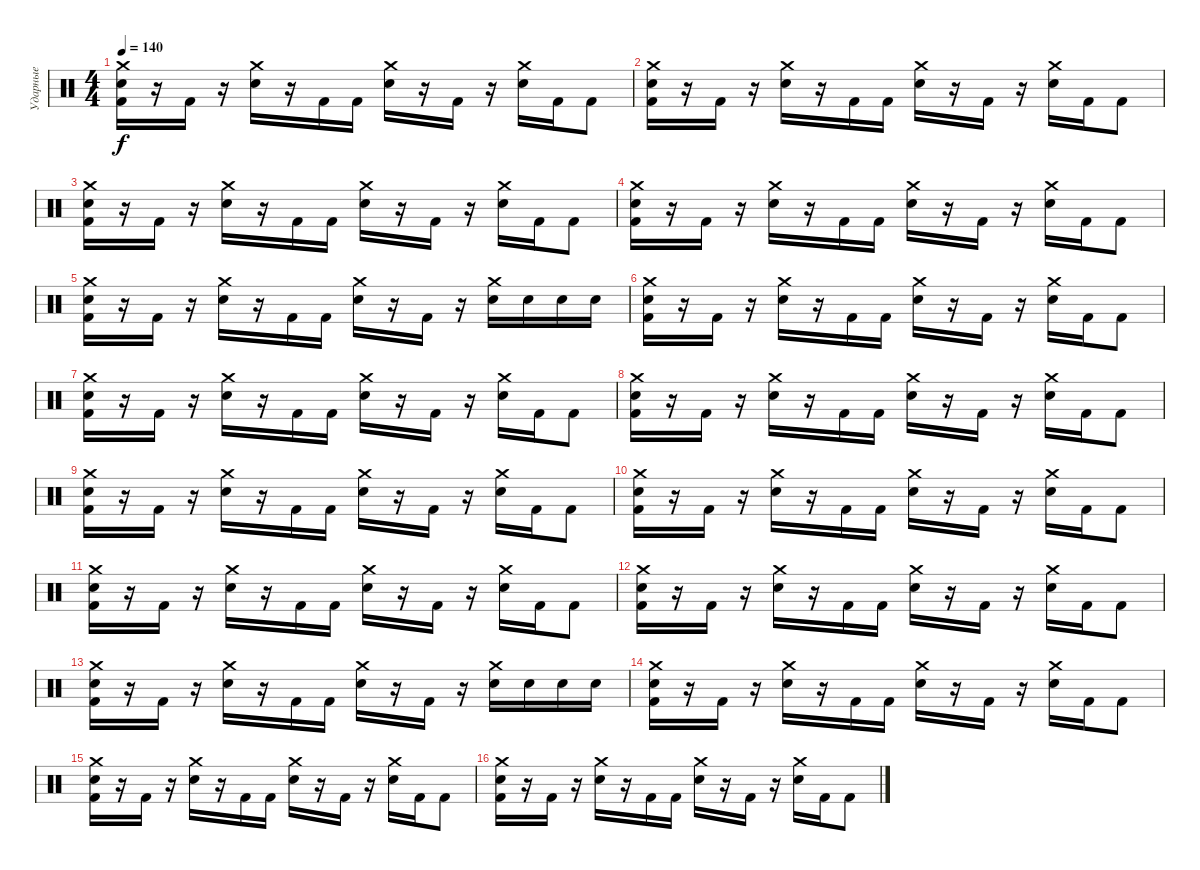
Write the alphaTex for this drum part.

\track ("Ударные" "Ударные") {instrument percussion}
\staff {score}
\articulation defaults
\ts (4 4)
\tempo 140
\clef neutral
\ks c
("Crash medium (hit)" "Electric Snare (hit)" "Kick (hit) 2").16{dy f} r.16 "Kick (hit) 2".16 r.16 ("Crash medium (hit)" "Electric Snare (hit)").16 r.16 "Kick (hit) 2".16 "Kick (hit) 2".16 ("Crash medium (hit)" "Electric Snare (hit)").16 r.16 "Kick (hit) 2".16 r.16 ("Crash medium (hit)" "Electric Snare (hit)").16 "Kick (hit) 2".16 "Kick (hit) 2".8 |
("Crash medium (hit)" "Electric Snare (hit)" "Kick (hit) 2").16 r.16 "Kick (hit) 2".16 r.16 ("Crash medium (hit)" "Electric Snare (hit)").16 r.16 "Kick (hit) 2".16 "Kick (hit) 2".16 ("Crash medium (hit)" "Electric Snare (hit)").16 r.16 "Kick (hit) 2".16 r.16 ("Crash medium (hit)" "Electric Snare (hit)").16 "Kick (hit) 2".16 "Kick (hit) 2".8 |
("Crash medium (hit)" "Electric Snare (hit)" "Kick (hit) 2").16 r.16 "Kick (hit) 2".16 r.16 ("Crash medium (hit)" "Electric Snare (hit)").16 r.16 "Kick (hit) 2".16 "Kick (hit) 2".16 ("Crash medium (hit)" "Electric Snare (hit)").16 r.16 "Kick (hit) 2".16 r.16 ("Crash medium (hit)" "Electric Snare (hit)").16 "Kick (hit) 2".16 "Kick (hit) 2".8 |
("Crash medium (hit)" "Electric Snare (hit)" "Kick (hit) 2").16 r.16 "Kick (hit) 2".16 r.16 ("Crash medium (hit)" "Electric Snare (hit)").16 r.16 "Kick (hit) 2".16 "Kick (hit) 2".16 ("Crash medium (hit)" "Electric Snare (hit)").16 r.16 "Kick (hit) 2".16 r.16 ("Crash medium (hit)" "Electric Snare (hit)").16 "Kick (hit) 2".16 "Kick (hit) 2".8 |
("Crash medium (hit)" "Electric Snare (hit)" "Kick (hit) 2").16 r.16 "Kick (hit) 2".16 r.16 ("Crash medium (hit)" "Electric Snare (hit)").16 r.16 "Kick (hit) 2".16 "Kick (hit) 2".16 ("Crash medium (hit)" "Electric Snare (hit)").16 r.16 "Kick (hit) 2".16 r.16 ("Crash medium (hit)" "Electric Snare (hit)").16 "Electric Snare (hit)".16 "Electric Snare (hit)".16 "Electric Snare (hit)".16 |
("Crash medium (hit)" "Electric Snare (hit)" "Kick (hit) 2").16 r.16 "Kick (hit) 2".16 r.16 ("Crash medium (hit)" "Electric Snare (hit)").16 r.16 "Kick (hit) 2".16 "Kick (hit) 2".16 ("Crash medium (hit)" "Electric Snare (hit)").16 r.16 "Kick (hit) 2".16 r.16 ("Crash medium (hit)" "Electric Snare (hit)").16 "Kick (hit) 2".16 "Kick (hit) 2".8 |
("Crash medium (hit)" "Electric Snare (hit)" "Kick (hit) 2").16 r.16 "Kick (hit) 2".16 r.16 ("Crash medium (hit)" "Electric Snare (hit)").16 r.16 "Kick (hit) 2".16 "Kick (hit) 2".16 ("Crash medium (hit)" "Electric Snare (hit)").16 r.16 "Kick (hit) 2".16 r.16 ("Crash medium (hit)" "Electric Snare (hit)").16 "Kick (hit) 2".16 "Kick (hit) 2".8 |
("Crash medium (hit)" "Electric Snare (hit)" "Kick (hit) 2").16 r.16 "Kick (hit) 2".16 r.16 ("Crash medium (hit)" "Electric Snare (hit)").16 r.16 "Kick (hit) 2".16 "Kick (hit) 2".16 ("Crash medium (hit)" "Electric Snare (hit)").16 r.16 "Kick (hit) 2".16 r.16 ("Crash medium (hit)" "Electric Snare (hit)").16 "Kick (hit) 2".16 "Kick (hit) 2".8 |
("Crash medium (hit)" "Electric Snare (hit)" "Kick (hit) 2").16 r.16 "Kick (hit) 2".16 r.16 ("Crash medium (hit)" "Electric Snare (hit)").16 r.16 "Kick (hit) 2".16 "Kick (hit) 2".16 ("Crash medium (hit)" "Electric Snare (hit)").16 r.16 "Kick (hit) 2".16 r.16 ("Crash medium (hit)" "Electric Snare (hit)").16 "Kick (hit) 2".16 "Kick (hit) 2".8 |
("Crash medium (hit)" "Electric Snare (hit)" "Kick (hit) 2").16 r.16 "Kick (hit) 2".16 r.16 ("Crash medium (hit)" "Electric Snare (hit)").16 r.16 "Kick (hit) 2".16 "Kick (hit) 2".16 ("Crash medium (hit)" "Electric Snare (hit)").16 r.16 "Kick (hit) 2".16 r.16 ("Crash medium (hit)" "Electric Snare (hit)").16 "Kick (hit) 2".16 "Kick (hit) 2".8 |
("Crash medium (hit)" "Electric Snare (hit)" "Kick (hit) 2").16 r.16 "Kick (hit) 2".16 r.16 ("Crash medium (hit)" "Electric Snare (hit)").16 r.16 "Kick (hit) 2".16 "Kick (hit) 2".16 ("Crash medium (hit)" "Electric Snare (hit)").16 r.16 "Kick (hit) 2".16 r.16 ("Crash medium (hit)" "Electric Snare (hit)").16 "Kick (hit) 2".16 "Kick (hit) 2".8 |
("Crash medium (hit)" "Electric Snare (hit)" "Kick (hit) 2").16 r.16 "Kick (hit) 2".16 r.16 ("Crash medium (hit)" "Electric Snare (hit)").16 r.16 "Kick (hit) 2".16 "Kick (hit) 2".16 ("Crash medium (hit)" "Electric Snare (hit)").16 r.16 "Kick (hit) 2".16 r.16 ("Crash medium (hit)" "Electric Snare (hit)").16 "Kick (hit) 2".16 "Kick (hit) 2".8 |
("Crash medium (hit)" "Electric Snare (hit)" "Kick (hit) 2").16 r.16 "Kick (hit) 2".16 r.16 ("Crash medium (hit)" "Electric Snare (hit)").16 r.16 "Kick (hit) 2".16 "Kick (hit) 2".16 ("Crash medium (hit)" "Electric Snare (hit)").16 r.16 "Kick (hit) 2".16 r.16 ("Crash medium (hit)" "Electric Snare (hit)").16 "Electric Snare (hit)".16 "Electric Snare (hit)".16 "Electric Snare (hit)".16 |
("Crash medium (hit)" "Electric Snare (hit)" "Kick (hit) 2").16 r.16 "Kick (hit) 2".16 r.16 ("Crash medium (hit)" "Electric Snare (hit)").16 r.16 "Kick (hit) 2".16 "Kick (hit) 2".16 ("Crash medium (hit)" "Electric Snare (hit)").16 r.16 "Kick (hit) 2".16 r.16 ("Crash medium (hit)" "Electric Snare (hit)").16 "Kick (hit) 2".16 "Kick (hit) 2".8 |
("Crash medium (hit)" "Electric Snare (hit)" "Kick (hit) 2").16 r.16 "Kick (hit) 2".16 r.16 ("Crash medium (hit)" "Electric Snare (hit)").16 r.16 "Kick (hit) 2".16 "Kick (hit) 2".16 ("Crash medium (hit)" "Electric Snare (hit)").16 r.16 "Kick (hit) 2".16 r.16 ("Crash medium (hit)" "Electric Snare (hit)").16 "Kick (hit) 2".16 "Kick (hit) 2".8 |
("Crash medium (hit)" "Electric Snare (hit)" "Kick (hit) 2").16 r.16 "Kick (hit) 2".16 r.16 ("Crash medium (hit)" "Electric Snare (hit)").16 r.16 "Kick (hit) 2".16 "Kick (hit) 2".16 ("Crash medium (hit)" "Electric Snare (hit)").16 r.16 "Kick (hit) 2".16 r.16 ("Crash medium (hit)" "Electric Snare (hit)").16 "Kick (hit) 2".16 "Kick (hit) 2".8
